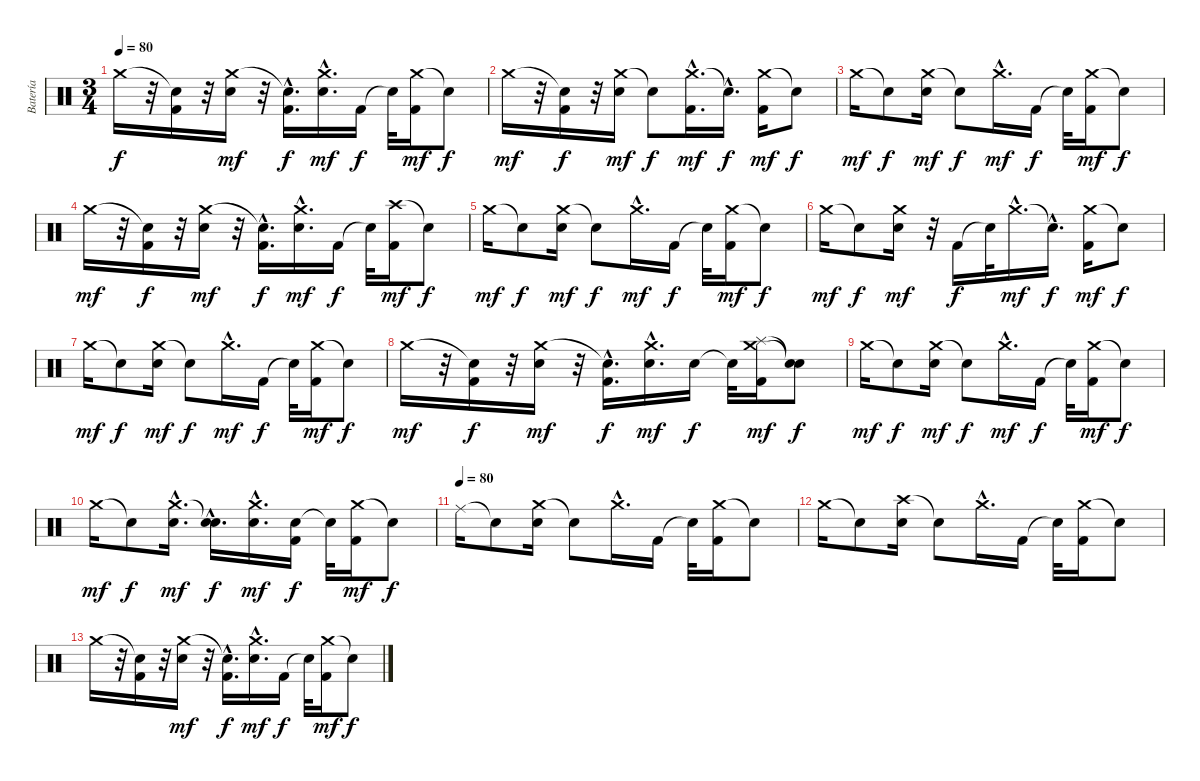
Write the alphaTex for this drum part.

\track ("Batería" "Batería") {instrument percussion}
\staff {score}
\articulation defaults
\ts (3 4)
\tempo 80
\clef neutral
\ks c "Crash medium (hit)".16{dy f}
r.32 ("Snare (hit)"{t} "Kick (hit) 2").16 r.32 ("Crash medium (hit)" "Snare (hit) 2").16{dy mf} r.32 ("Snare (hit)"{hac t} "Kick (hit) 2"{hac}).16{d dy f} ("Crash medium (hit)"{hac} "Snare (hit) 2"{hac}).16{d dy mf} "Kick (hit) 2".16{dy f} "Snare (hit)"{t}.32 ("Crash medium (hit)" "Kick (hit) 2").16{dy mf} "Snare (hit)"{t}.8{dy f} |
"Crash medium (hit)".16{dy mf} r.32 ("Snare (hit)"{t} "Kick (hit) 2").16{dy f} r.32 ("Crash medium (hit)" "Snare (hit) 2").16{dy mf} "Snare (hit)"{t}.8{dy f} ("Crash medium (hit)"{hac} "Kick (hit) 2"{hac}).16{d dy mf} "Snare (hit)"{hac t}.16{d dy f} ("Crash medium (hit)" "Kick (hit) 2").16{dy mf} "Snare (hit)"{t}.8{dy f} |
"Crash medium (hit)".16{dy mf} "Snare (hit)"{t}.8{dy f} ("Crash medium (hit)" "Snare (hit) 2").16{dy mf} "Snare (hit)"{t}.8{dy f} "Crash medium (hit)"{hac}.16{d dy mf} "Kick (hit) 2".16{dy f} "Snare (hit)"{t}.32 ("Crash medium (hit)" "Kick (hit) 2").16{dy mf} "Snare (hit)"{t}.8{dy f} |
"Crash medium (hit)".16{dy mf} r.32 ("Snare (hit)"{t} "Kick (hit) 2").16{dy f} r.32 ("Crash medium (hit)" "Snare (hit) 2").16{dy mf} r.32 ("Snare (hit)"{hac t} "Kick (hit) 2"{hac}).16{d dy f} ("Crash medium (hit)"{hac} "Snare (hit) 2"{hac}).16{d dy mf} "Kick (hit) 2".16{dy f} "Snare (hit)"{t}.32 ("Crash high (hit)" "Kick (hit) 2").16{dy mf} "Snare (hit)"{t}.8{dy f} |
"Crash medium (hit)".16{dy mf} "Snare (hit)"{t}.8{dy f} ("Crash medium (hit)" "Snare (hit) 2").16{dy mf} "Snare (hit)"{t}.8{dy f} "Crash medium (hit)"{hac}.16{d dy mf} "Kick (hit) 2".16{dy f} "Snare (hit)"{t}.32 ("Crash medium (hit)" "Kick (hit) 2").16{dy mf} "Snare (hit)"{t}.8{dy f} |
"Crash medium (hit)".16{dy mf} "Snare (hit)"{t}.8{dy f} ("Crash medium (hit)" "Snare (hit) 2").16{dy mf} r.32 "Kick (hit) 2".16{dy f} "Snare (hit)"{t}.32 "Crash medium (hit)"{hac}.16{d dy mf} "Snare (hit)"{hac t}.16{d dy f} ("Crash medium (hit)" "Kick (hit) 2").16{dy mf} "Snare (hit)"{t}.8{dy f} |
"Crash medium (hit)".16{dy mf} "Snare (hit)"{t}.8{dy f} ("Crash medium (hit)" "Snare (hit) 2").16{dy mf} "Snare (hit)"{t}.8{dy f} "Crash medium (hit)"{hac}.16{d dy mf} "Kick (hit) 2".16{dy f} "Snare (hit)"{t}.32 ("Crash medium (hit)" "Kick (hit) 2").16{dy mf} "Snare (hit)"{t}.8{dy f} |
"Crash medium (hit)".16{dy mf volume 0} r.32 ("Snare (hit)"{t} "Kick (hit) 2").16{dy f} r.32 ("Crash medium (hit)" "Snare (hit) 2").16{dy mf} r.32 ("Snare (hit)"{hac t} "Kick (hit) 2"{hac}).16{d dy f} ("Crash medium (hit)"{hac} "Snare (hit) 2"{hac}).16{d dy mf} "Snare (hit) 2".16{dy f} "Snare (hit)"{t}.32 ("Crash medium (hit)" "Splash (hit)" "Kick (hit) 2").16{dy mf} ("Snare (hit)"{t} "Snare (hit)"{t}).8{dy f} |
"Crash medium (hit)".16{dy mf} "Snare (hit)"{t}.8{dy f} ("Crash medium (hit)" "Snare (hit) 2").16{dy mf} "Snare (hit)"{t}.8{dy f} "Crash medium (hit)"{hac}.16{d dy mf} "Kick (hit) 2".16{dy f} "Snare (hit)"{t}.32 ("Crash medium (hit)" "Kick (hit) 2").16{dy mf} "Snare (hit)"{t}.8{dy f} |
"Crash medium (hit)".16{dy mf} "Snare (hit)"{t}.8{dy f} ("Crash medium (hit)"{hac} "Snare (hit) 2"{hac}).16{d dy mf} ("Snare (hit)"{hac t} "Snare (hit) 2"{hac}).16{d dy f} ("Crash medium (hit)"{hac} "Snare (hit) 2"{hac}).16{d dy mf} ("Snare (hit) 2" "Kick (hit) 2").16{dy f} "Snare (hit)"{t}.32 ("Crash medium (hit)" "Kick (hit) 2").16{dy mf} "Snare (hit)"{t}.8{dy f} |
\tempo (80)
"Ride (middle)".16 "Snare (hit)"{t}.8 ("Crash medium (hit)" "Snare (hit) 2").16 "Snare (hit)"{t}.8 "Crash medium (hit)"{hac}.16{d} "Kick (hit) 2".16 "Snare (hit)"{t}.32 ("Crash medium (hit)" "Kick (hit) 2").16 "Snare (hit)"{t}.8 |
"Crash medium (hit)".16 "Snare (hit)"{t}.8 ("Crash high (hit)" "Snare (hit) 2").16 "Snare (hit)"{t}.8 "Crash medium (hit)"{hac}.16{d} "Kick (hit) 2".16 "Snare (hit)"{t}.32 ("Crash medium (hit)" "Kick (hit) 2").16 "Snare (hit)"{t}.8 |
"Crash medium (hit)".16 r.32 ("Snare (hit)"{t} "Kick (hit) 2").16 r.32 ("Crash medium (hit)" "Snare (hit) 2").16{dy mf} r.32 ("Snare (hit)"{hac t} "Kick (hit) 2"{hac}).16{d dy f} ("Crash medium (hit)"{hac} "Snare (hit) 2"{hac}).16{d dy mf} "Kick (hit) 2".16{dy f} "Snare (hit)"{t}.32 ("Crash medium (hit)" "Kick (hit) 2").16{dy mf} "Snare (hit)"{t}.8{dy f}
